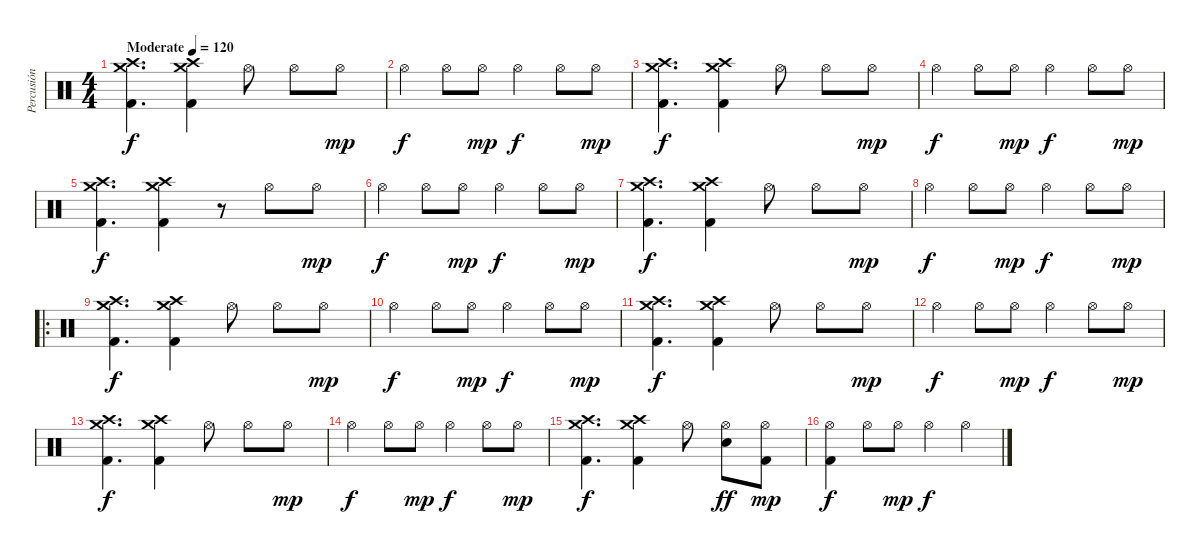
\track ("Percusión" "Percusión") {instrument percussion}
\staff {score}
\articulation defaults
\ts (4 4)
\tempo (120 "Moderate")
\clef neutral
\ks c
("Crash high (hit)" "Crash medium (hit)" "Kick (hit) 2").4{d dy f} ("Crash high (hit)" "Crash medium (hit)" "Kick (hit) 2").4 "Hi-Hat (open)".8 "Hi-Hat (open)".8 "Hi-Hat (open)".8{dy mp} |
"Hi-Hat (open)".4{dy f} "Hi-Hat (open)".8 "Hi-Hat (open)".8{dy mp} "Hi-Hat (open)".4{dy f} "Hi-Hat (open)".8 "Hi-Hat (open)".8{dy mp} |
("Crash high (hit)" "Crash medium (hit)" "Kick (hit) 2").4{d dy f} ("Crash high (hit)" "Crash medium (hit)" "Kick (hit) 2").4 "Hi-Hat (open)".8 "Hi-Hat (open)".8 "Hi-Hat (open)".8{dy mp} |
"Hi-Hat (open)".4{dy f} "Hi-Hat (open)".8 "Hi-Hat (open)".8{dy mp} "Hi-Hat (open)".4{dy f} "Hi-Hat (open)".8 "Hi-Hat (open)".8{dy mp} |
("Crash high (hit)" "Crash medium (hit)" "Kick (hit) 2").4{d dy f} ("Crash high (hit)" "Crash medium (hit)" "Kick (hit) 2").4 r.8 "Hi-Hat (open)".8 "Hi-Hat (open)".8{dy mp} |
"Hi-Hat (open)".4{dy f} "Hi-Hat (open)".8 "Hi-Hat (open)".8{dy mp} "Hi-Hat (open)".4{dy f} "Hi-Hat (open)".8 "Hi-Hat (open)".8{dy mp} |
("Crash high (hit)" "Crash medium (hit)" "Kick (hit) 2").4{d dy f} ("Crash high (hit)" "Crash medium (hit)" "Kick (hit) 2").4 "Hi-Hat (open)".8 "Hi-Hat (open)".8 "Hi-Hat (open)".8{dy mp} |
"Hi-Hat (open)".4{dy f} "Hi-Hat (open)".8 "Hi-Hat (open)".8{dy mp} "Hi-Hat (open)".4{dy f} "Hi-Hat (open)".8 "Hi-Hat (open)".8{dy mp} |
\ro
("Crash high (hit)" "Crash medium (hit)" "Kick (hit) 2").4{d dy f} ("Crash high (hit)" "Crash medium (hit)" "Kick (hit) 2").4 "Hi-Hat (open)".8 "Hi-Hat (open)".8 "Hi-Hat (open)".8{dy mp} |
"Hi-Hat (open)".4{dy f} "Hi-Hat (open)".8 "Hi-Hat (open)".8{dy mp} "Hi-Hat (open)".4{dy f} "Hi-Hat (open)".8 "Hi-Hat (open)".8{dy mp} |
("Crash high (hit)" "Crash medium (hit)" "Kick (hit) 2").4{d dy f} ("Crash high (hit)" "Crash medium (hit)" "Kick (hit) 2").4 "Hi-Hat (open)".8 "Hi-Hat (open)".8 "Hi-Hat (open)".8{dy mp} |
"Hi-Hat (open)".4{dy f} "Hi-Hat (open)".8 "Hi-Hat (open)".8{dy mp} "Hi-Hat (open)".4{dy f} "Hi-Hat (open)".8 "Hi-Hat (open)".8{dy mp} |
("Crash high (hit)" "Crash medium (hit)" "Kick (hit) 2").4{d dy f} ("Crash high (hit)" "Crash medium (hit)" "Kick (hit) 2").4 "Hi-Hat (open)".8 "Hi-Hat (open)".8 "Hi-Hat (open)".8{dy mp} |
"Hi-Hat (open)".4{dy f} "Hi-Hat (open)".8 "Hi-Hat (open)".8{dy mp} "Hi-Hat (open)".4{dy f} "Hi-Hat (open)".8 "Hi-Hat (open)".8{dy mp} |
("Crash high (hit)" "Crash medium (hit)" "Kick (hit) 2").4{d dy f} ("Crash high (hit)" "Crash medium (hit)" "Kick (hit) 2").4 "Hi-Hat (open)".8 ("Hi-Hat (open)" "Electric Snare (hit)").8{dy ff} ("Hi-Hat (open)" "Kick (hit) 2").8{dy mp} |
("Hi-Hat (open)" "Kick (hit) 2").4{dy f} "Hi-Hat (open)".8 "Hi-Hat (open)".8{dy mp} "Hi-Hat (open)".4{dy f} "Hi-Hat (open)".4
